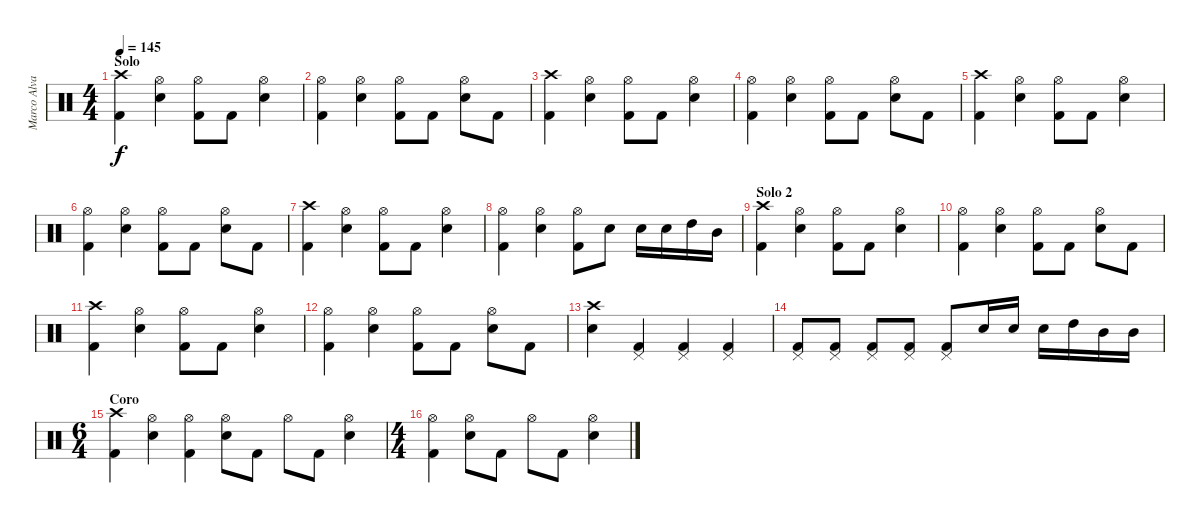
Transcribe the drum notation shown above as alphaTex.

\track ("Marco Alvarez" "Marco Alva") {instrument percussion}
\staff {score}
\articulation defaults
\ts (4 4)
\section ("" "Solo")
\tempo 145
\clef neutral
\ks c
("Kick (hit) 2" "Crash high (hit)").4{dy f} ("Electric Snare (hit)" "Hi-Hat (open)").4 ("Kick (hit) 2" "Hi-Hat (open)").8 "Kick (hit) 2".8 ("Electric Snare (hit)" "Hi-Hat (open)").4 |
("Kick (hit) 2" "Hi-Hat (open)").4 ("Electric Snare (hit)" "Hi-Hat (open)").4 ("Kick (hit) 2" "Hi-Hat (open)").8 "Kick (hit) 2".8 ("Electric Snare (hit)" "Hi-Hat (open)").8 "Kick (hit) 2".8 |
("Kick (hit) 2" "Crash high (hit)").4 ("Electric Snare (hit)" "Hi-Hat (open)").4 ("Kick (hit) 2" "Hi-Hat (open)").8 "Kick (hit) 2".8 ("Electric Snare (hit)" "Hi-Hat (open)").4 |
("Kick (hit) 2" "Hi-Hat (open)").4 ("Electric Snare (hit)" "Hi-Hat (open)").4 ("Kick (hit) 2" "Hi-Hat (open)").8 "Kick (hit) 2".8 ("Electric Snare (hit)" "Hi-Hat (open)").8 "Kick (hit) 2".8 |
("Kick (hit) 2" "Crash high (hit)").4 ("Electric Snare (hit)" "Hi-Hat (open)").4 ("Kick (hit) 2" "Hi-Hat (open)").8 "Kick (hit) 2".8 ("Electric Snare (hit)" "Hi-Hat (open)").4 |
("Kick (hit) 2" "Hi-Hat (open)").4 ("Electric Snare (hit)" "Hi-Hat (open)").4 ("Kick (hit) 2" "Hi-Hat (open)").8 "Kick (hit) 2".8 ("Electric Snare (hit)" "Hi-Hat (open)").8 "Kick (hit) 2".8 |
("Kick (hit) 2" "Crash high (hit)").4 ("Electric Snare (hit)" "Hi-Hat (open)").4 ("Kick (hit) 2" "Hi-Hat (open)").8 "Kick (hit) 2".8 ("Electric Snare (hit)" "Hi-Hat (open)").4 |
("Kick (hit) 2" "Hi-Hat (open)").4 ("Electric Snare (hit)" "Hi-Hat (open)").4 ("Kick (hit) 2" "Hi-Hat (open)").8 "Electric Snare (hit)".8 "Electric Snare (hit)".16 "Electric Snare (hit)".16 "High Tom (hit)".16 "Mid Tom (hit)".16 |
\section ("" "Solo 2")
("Kick (hit) 2" "Crash high (hit)").4 ("Electric Snare (hit)" "Hi-Hat (open)").4 ("Kick (hit) 2" "Hi-Hat (open)").8 "Kick (hit) 2".8 ("Electric Snare (hit)" "Hi-Hat (open)").4 |
("Kick (hit) 2" "Hi-Hat (open)").4 ("Electric Snare (hit)" "Hi-Hat (open)").4 ("Kick (hit) 2" "Hi-Hat (open)").8 "Kick (hit) 2".8 ("Electric Snare (hit)" "Hi-Hat (open)").8 "Kick (hit) 2".8 |
("Kick (hit) 2" "Crash high (hit)").4 ("Electric Snare (hit)" "Hi-Hat (open)").4 ("Kick (hit) 2" "Hi-Hat (open)").8 "Kick (hit) 2".8 ("Electric Snare (hit)" "Hi-Hat (open)").4 |
("Kick (hit) 2" "Hi-Hat (open)").4 ("Electric Snare (hit)" "Hi-Hat (open)").4 ("Kick (hit) 2" "Hi-Hat (open)").8 "Kick (hit) 2".8 ("Electric Snare (hit)" "Hi-Hat (open)").8 "Kick (hit) 2".8 |
("Electric Snare (hit)" "Crash high (hit)").4 ("Kick (hit) 2" "Pedal Hi-Hat (hit)").4 ("Kick (hit) 2" "Pedal Hi-Hat (hit)").4 ("Kick (hit) 2" "Pedal Hi-Hat (hit)").4 |
("Kick (hit) 2" "Pedal Hi-Hat (hit)").8 ("Kick (hit) 2" "Pedal Hi-Hat (hit)").8 ("Kick (hit) 2" "Pedal Hi-Hat (hit)").8 ("Kick (hit) 2" "Pedal Hi-Hat (hit)").8 ("Kick (hit) 2" "Pedal Hi-Hat (hit)").8 "Electric Snare (hit)".16 "Electric Snare (hit)".16 "Electric Snare (hit)".16 "High Tom (hit)".16 "Mid Tom (hit)".16 "Mid Tom (hit)".16 |
\ts (6 4)
\section ("" "Coro")
("Kick (hit) 2" "Crash high (hit)").4 ("Electric Snare (hit)" "Hi-Hat (open)").4 ("Kick (hit) 2" "Hi-Hat (open)").4 ("Electric Snare (hit)" "Hi-Hat (open)").8 "Kick (hit) 2".8 "Hi-Hat (open)".8 "Kick (hit) 2".8 ("Electric Snare (hit)" "Hi-Hat (open)").4 |
\ts (4 4)
("Kick (hit) 2" "Hi-Hat (open)").4 ("Electric Snare (hit)" "Hi-Hat (open)").8 "Kick (hit) 2".8 "Hi-Hat (open)".8 "Kick (hit) 2".8 ("Electric Snare (hit)" "Hi-Hat (open)").4
